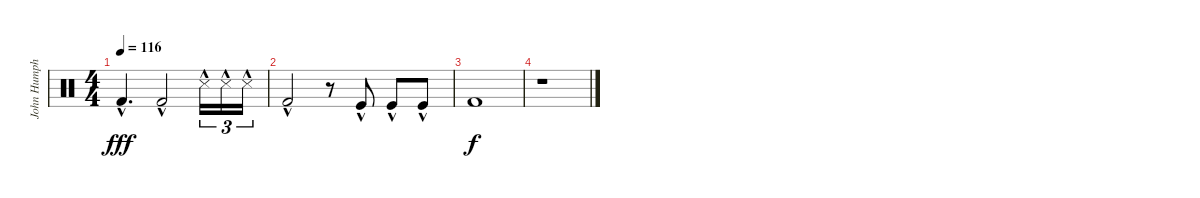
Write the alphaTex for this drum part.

\track ("John Humphrey (Percussions)" "John Humph") {instrument percussion}
\staff {score}
\articulation defaults
\ts (4 4)
\tempo 116
\clef neutral
\ks c "Kick (hit) 2"{hac}.4{d dy fff} "Kick (hit) 2"{hac}.2 "Snare (side stick) 3"{hac}.16{tu (3 2)} "Snare (side stick) 3"{hac}.16{tu (3 2)} "Snare (side stick) 3"{hac}.16{tu (3 2)}
|
"Kick (hit) 2"{hac}.2 r.8 "Kick (hit)"{hac}.8 "Kick (hit)"{hac}.8 "Kick (hit)"{hac}.8 |
"Kick (hit) 2".1{dy f} |
r.1
